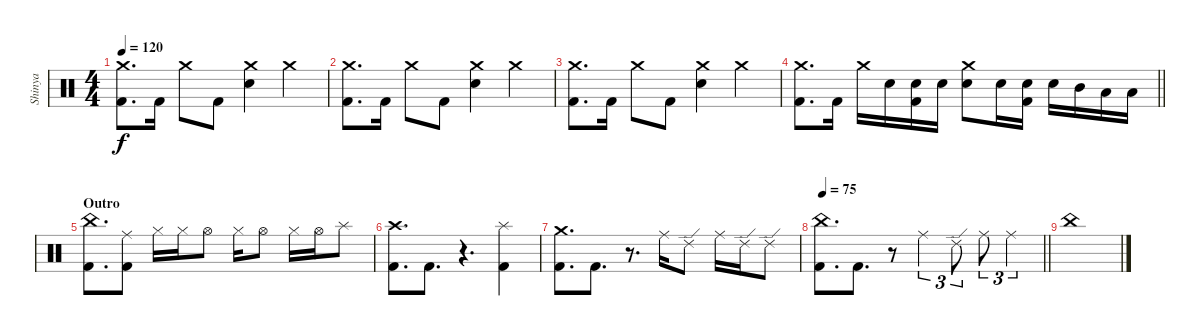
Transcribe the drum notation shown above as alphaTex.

\track ("Shinya" "Shinya") {instrument percussion}
\staff {score}
\articulation defaults
\ts (4 4)
\tempo 120
\clef neutral
\ks c
("Crash medium (hit)" "Kick (hit) 2").8{d dy f} "Kick (hit) 2".16 "Crash medium (hit)".8 "Kick (hit) 2".8 ("Crash medium (hit)" "Electric Snare (hit)").4 "Crash medium (hit)".4 |
("Crash medium (hit)" "Kick (hit) 2").8{d} "Kick (hit) 2".16 "Crash medium (hit)".8 "Kick (hit) 2".8 ("Crash medium (hit)" "Electric Snare (hit)").4 "Crash medium (hit)".4 |
("Crash medium (hit)" "Kick (hit) 2").8{d} "Kick (hit) 2".16 "Crash medium (hit)".8 "Kick (hit) 2".8 ("Crash medium (hit)" "Electric Snare (hit)").4 "Crash medium (hit)".4 |
\barLineRight lightlight
("Crash medium (hit)" "Kick (hit) 2").8{d} "Kick (hit) 2".16 "Crash medium (hit)".16 "Electric Snare (hit)".16 ("Snare (hit) 2" "Kick (hit) 2").16 "Electric Snare (hit)".16 ("Crash medium (hit)" "Snare (hit) 2").8 "Snare (hit) 2".16 ("Snare (hit) 2" "Kick (hit) 2").16 "Electric Snare (hit)".16 "Mid Tom (hit)".16 "Low Tom (hit)".16 "Low Floor Tom (hit)".16 |
\section ("" "Outro")
("China (hit)" "Kick (hit) 2").8{d} ("Ride (middle)" "Kick (hit) 2").8 "Hi-Hat (closed)".16 "Hi-Hat (closed)".16 "Hi-Hat (open)".8 "Hi-Hat (closed)".16 "Hi-Hat (open)".8 "Hi-Hat (closed)".16 "Hi-Hat (open)".16 "Splash (hit)".8 |
("Crash high (hit)" "Kick (hit) 2").8{d} "Kick (hit) 2".8{d} r.4{d} ("Splash (hit)" "Kick (hit) 2").4 |
("Crash medium (hit)" "Kick (hit) 2").8{d} "Kick (hit) 2".8{d} r.8{d} "Ride (middle)".16 "Ride (edge) 2".8 "Ride (middle)".16 "Ride (edge) 2".16 "Ride (edge) 2".8 |
\tempo 75
\barLineRight lightlight
("China (hit)" "Kick (hit) 2").8{d} "Kick (hit) 2".8{d} r.8 "Ride (middle)".4{tu (3 2)} "Ride (edge) 2".8{tu (3 2)} "Ride (middle)".8{tu (3 2)} "Ride (middle)".4{tu (3 2)} |
"China (hit)".1
